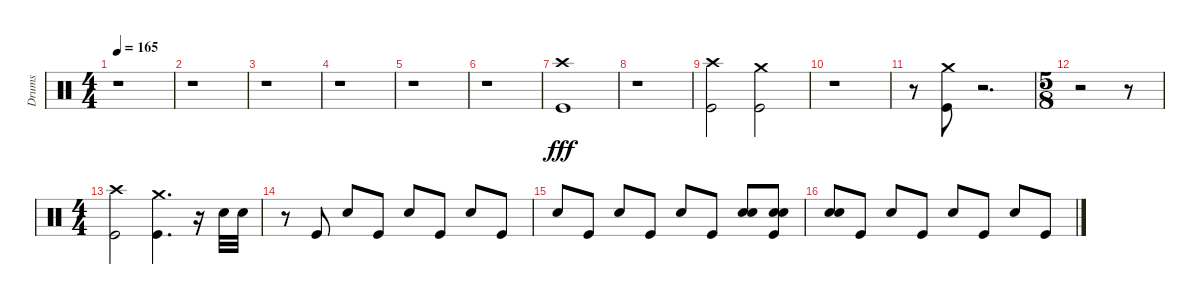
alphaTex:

\track ("Drums" "Drums") {instrument percussion}
\staff {score}
\articulation defaults
\ts (4 4)
\tempo 165
\clef neutral
\ks c
r.1{dy fff} |
r.1 |
r.1 |
r.1 |
r.1 |
r.1 |
("Crash high (hit)" "Kick (hit)").1 |
r.1 |
("Crash high (hit)" "Kick (hit)").2 ("Crash medium (hit)" "Kick (hit)").2 |
r.1 |
r.8 ("Crash medium (hit)" "Kick (hit)").8 r.2{d} |
\ts (5 8)
r.2 r.8 |
\ts (4 4)
("Crash high (hit)" "Kick (hit)").2 ("Crash medium (hit)" "Kick (hit)").4{d} r.16 "Snare (hit) 2".32 "Snare (hit) 2".32 |
r.8 "Kick (hit)".8 "Snare (hit) 2".8 "Kick (hit)".8 "Snare (hit) 2".8 "Kick (hit)".8 "Snare (hit) 2".8 "Kick (hit)".8 |
"Snare (hit) 2".8 "Kick (hit)".8 "Snare (hit) 2".8 "Kick (hit)".8 "Snare (hit) 2".8 "Kick (hit)".8 ("Hand Clap (hit)" "Snare (hit) 2").8 ("Hand Clap (hit)" "Snare (hit) 2" "Kick (hit)").8 |
("Hand Clap (hit)" "Snare (hit) 2").8 "Kick (hit)".8 "Snare (hit) 2".8 "Kick (hit)".8 "Snare (hit) 2".8 "Kick (hit)".8 "Snare (hit) 2".8 "Kick (hit)".8
